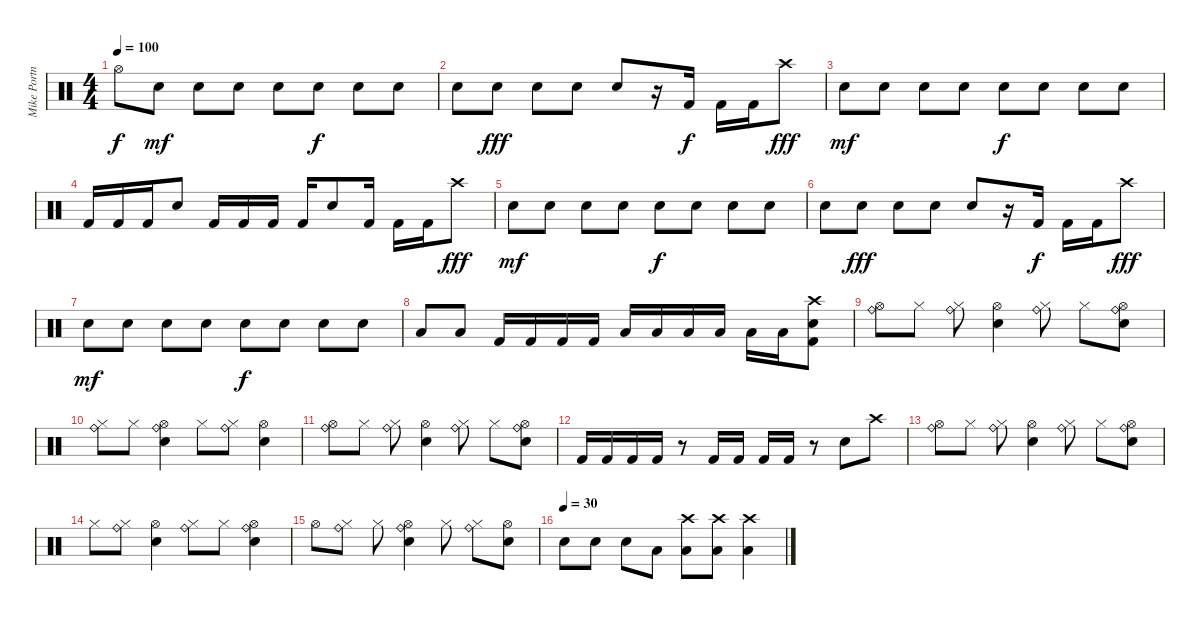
\track ("Mike Portnoy" "Mike Portn") {instrument percussion}
\staff {score}
\articulation defaults
\ts (4 4)
\tempo 100
\clef neutral
\ks c "Hi-Hat (open)".8{dy f} "Electric Snare (hit)".8{dy mf} "Electric Snare (hit)".8 "Electric Snare (hit)".8 "Electric Snare (hit)".8 "Electric Snare (hit)".8{dy f} "Electric Snare (hit)".8 "Electric Snare (hit)".8
|
"Electric Snare (hit)".8 "Electric Snare (hit)".8{dy fff} "Electric Snare (hit)".8 "Electric Snare (hit)".8 "Electric Snare (hit)".8 r.16 "Kick (hit) 2".16{dy f} "Kick (hit) 2".16 "Kick (hit) 2".16 "Crash high (hit)".8{dy fff} |
"Electric Snare (hit)".8{dy mf} "Electric Snare (hit)".8 "Electric Snare (hit)".8 "Electric Snare (hit)".8 "Electric Snare (hit)".8{dy f} "Electric Snare (hit)".8 "Electric Snare (hit)".8 "Electric Snare (hit)".8 |
"Kick (hit) 2".16 "Kick (hit) 2".16 "Kick (hit) 2".16 "Electric Snare (hit)".8 "Kick (hit) 2".16 "Kick (hit) 2".16 "Kick (hit) 2".16 "Kick (hit) 2".16 "Electric Snare (hit)".8 "Kick (hit) 2".16 "Kick (hit) 2".16 "Kick (hit) 2".16 "Crash high (hit)".8{dy fff} |
"Electric Snare (hit)".8{dy mf} "Electric Snare (hit)".8 "Electric Snare (hit)".8 "Electric Snare (hit)".8 "Electric Snare (hit)".8{dy f} "Electric Snare (hit)".8 "Electric Snare (hit)".8 "Electric Snare (hit)".8 |
"Electric Snare (hit)".8 "Electric Snare (hit)".8{dy fff} "Electric Snare (hit)".8 "Electric Snare (hit)".8 "Electric Snare (hit)".8 r.16 "Kick (hit) 2".16{dy f} "Kick (hit) 2".16 "Kick (hit) 2".16 "Crash high (hit)".8{dy fff} |
"Electric Snare (hit)".8{dy mf} "Electric Snare (hit)".8 "Electric Snare (hit)".8 "Electric Snare (hit)".8 "Electric Snare (hit)".8{dy f} "Electric Snare (hit)".8 "Electric Snare (hit)".8 "Electric Snare (hit)".8 |
"Low Tom (hit)".8 "Low Floor Tom (hit)".8 "Kick (hit) 2".16 "Kick (hit) 2".16 "Kick (hit) 2".16 "Kick (hit) 2".16 "Low Floor Tom (hit)".16 "Low Floor Tom (hit)".16 "Low Tom (hit)".16 "Low Tom (hit)".16 "Low Tom (hit)".16 "Low Tom (hit)".16 ("Crash high (hit)" "Electric Snare (hit)" "Kick (hit) 2").8 |
("Ride (bell)" "Hi-Hat (open)").8 "Hi-Hat (closed)".8 ("Ride (bell)" "Hi-Hat (closed)").8 ("Hi-Hat (open)" "Electric Snare (hit)").4 ("Ride (bell)" "Hi-Hat (closed)").8 "Hi-Hat (closed)".8 ("Ride (bell)" "Hi-Hat (open)" "Electric Snare (hit)").8 |
("Ride (bell)" "Hi-Hat (closed)").8 "Hi-Hat (closed)".8 ("Ride (bell)" "Hi-Hat (open)" "Electric Snare (hit)").4 "Hi-Hat (closed)".8 ("Ride (bell)" "Hi-Hat (closed)").8 ("Hi-Hat (open)" "Electric Snare (hit)").4 |
("Ride (bell)" "Hi-Hat (open)").8 "Hi-Hat (closed)".8 ("Ride (bell)" "Hi-Hat (closed)").8 ("Hi-Hat (open)" "Electric Snare (hit)").4 ("Ride (bell)" "Hi-Hat (closed)").8 "Hi-Hat (closed)".8 ("Ride (bell)" "Hi-Hat (open)" "Electric Snare (hit)").8 |
"Kick (hit) 2".16 "Kick (hit) 2".16 "Kick (hit) 2".16 "Kick (hit) 2".16 r.8 "Kick (hit) 2".16 "Kick (hit) 2".16 "Kick (hit) 2".16 "Kick (hit) 2".16 r.8 "Electric Snare (hit)".8 "Crash high (hit)".8 |
("Ride (bell)" "Hi-Hat (open)").8 "Hi-Hat (closed)".8 ("Ride (bell)" "Hi-Hat (closed)").8 ("Hi-Hat (open)" "Electric Snare (hit)").4 ("Ride (bell)" "Hi-Hat (closed)").8 "Hi-Hat (closed)".8 ("Ride (bell)" "Hi-Hat (open)" "Electric Snare (hit)").8 |
"Hi-Hat (closed)".8 ("Ride (bell)" "Hi-Hat (closed)").8 ("Hi-Hat (open)" "Electric Snare (hit)").4 ("Ride (bell)" "Hi-Hat (closed)").8 "Hi-Hat (closed)".8 ("Ride (bell)" "Hi-Hat (open)" "Electric Snare (hit)").4 |
"Hi-Hat (open)".8 ("Ride (bell)" "Hi-Hat (closed)").8 "Hi-Hat (closed)".8 ("Ride (bell)" "Hi-Hat (open)" "Electric Snare (hit)").4 "Hi-Hat (closed)".8 ("Ride (bell)" "Hi-Hat (closed)").8 ("Hi-Hat (open)" "Electric Snare (hit)").8 |
\tempo (30)
"Electric Snare (hit)".8 "Electric Snare (hit)".8 "Electric Snare (hit)".8 "Low Tom (hit)".8 ("Crash high (hit)" "Low Floor Tom (hit)").8 ("Crash high (hit)" "Low Floor Tom (hit)").8 ("Crash high (hit)" "Low Floor Tom (hit)").4
